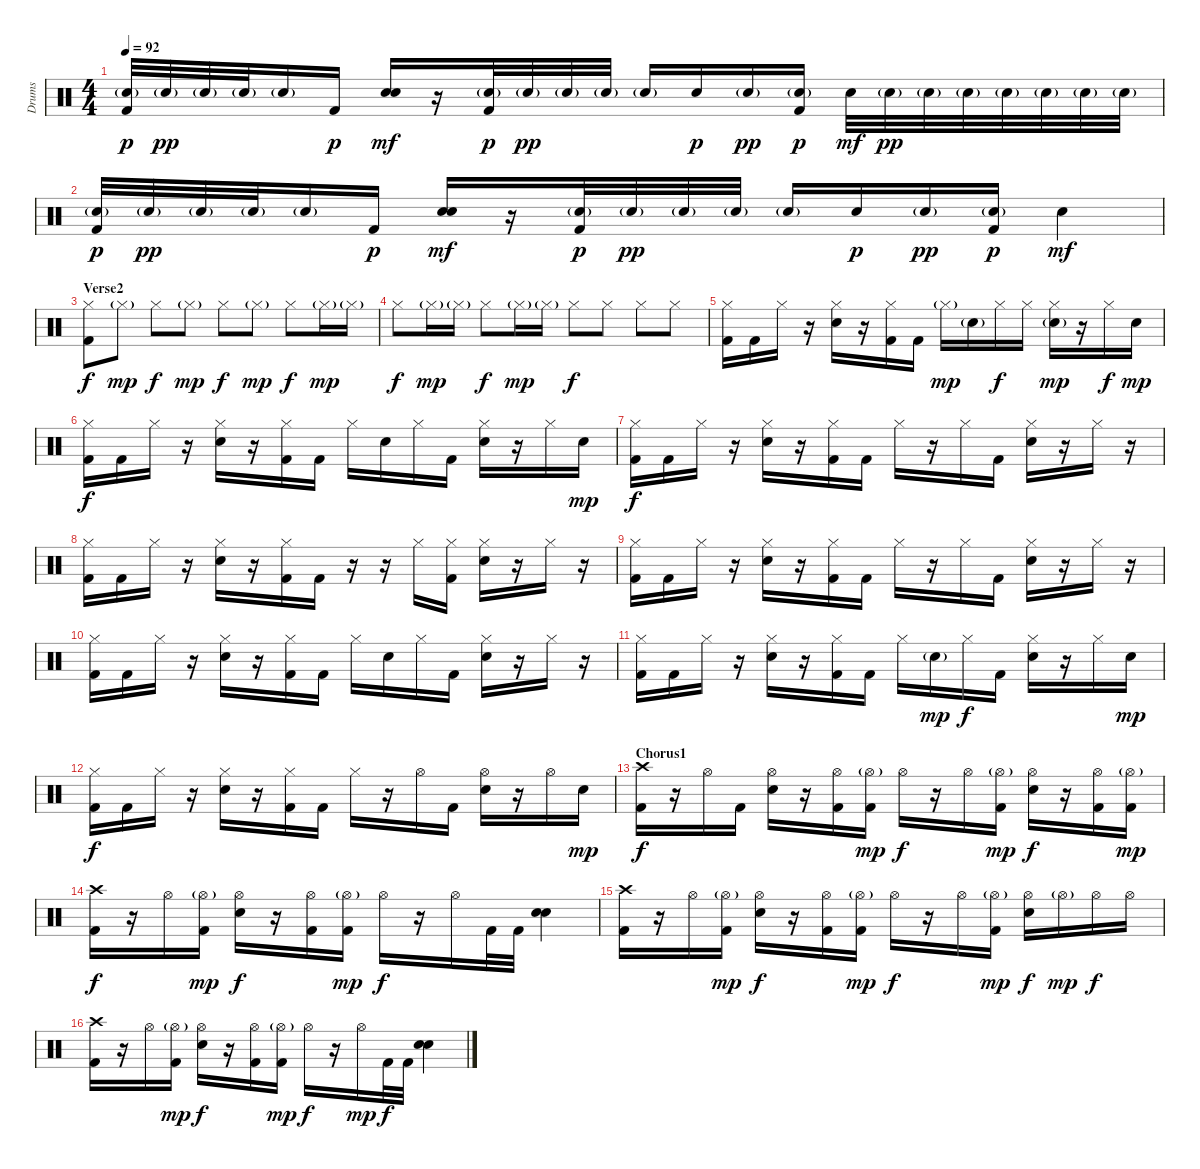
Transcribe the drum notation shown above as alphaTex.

\track ("Drums" "Drums") {instrument percussion}
\staff {score}
\articulation defaults
\ts (4 4)
\tempo 92
\clef neutral
\ks c
("Electric Snare (hit)"{g} "Kick (hit) 2").32{dy p} "Electric Snare (hit)"{g}.32{dy pp} "Electric Snare (hit)"{g}.32 "Electric Snare (hit)"{g}.32 "Electric Snare (hit)"{g}.16 "Kick (hit) 2".16{dy p} ("Electric Snare (hit)" "Electric Snare (hit)").16{dy mf} r.16 ("Electric Snare (hit)"{g} "Kick (hit) 2").32{dy p} "Electric Snare (hit)"{g}.32{dy pp} "Electric Snare (hit)"{g}.32 "Electric Snare (hit)"{g}.32 "Electric Snare (hit)"{g}.16 "Electric Snare (hit)".16{dy p} "Electric Snare (hit)"{g}.16{dy pp} ("Electric Snare (hit)"{g} "Kick (hit) 2").16{dy p} "Electric Snare (hit)".32{dy mf} "Electric Snare (hit)"{g}.32{dy pp} "Electric Snare (hit)"{g}.32 "Electric Snare (hit)"{g}.32 "Electric Snare (hit)"{g}.32 "Electric Snare (hit)"{g}.32 "Electric Snare (hit)"{g}.32 "Electric Snare (hit)"{g}.32 |
("Electric Snare (hit)"{g} "Kick (hit) 2").32{dy p} "Electric Snare (hit)"{g}.32{dy pp} "Electric Snare (hit)"{g}.32 "Electric Snare (hit)"{g}.32 "Electric Snare (hit)"{g}.16 "Kick (hit) 2".16{dy p} ("Electric Snare (hit)" "Electric Snare (hit)").16{dy mf} r.16 ("Electric Snare (hit)"{g} "Kick (hit) 2").32{dy p} "Electric Snare (hit)"{g}.32{dy pp} "Electric Snare (hit)"{g}.32 "Electric Snare (hit)"{g}.32 "Electric Snare (hit)"{g}.16 "Electric Snare (hit)".16{dy p} "Electric Snare (hit)"{g}.16{dy pp} ("Electric Snare (hit)"{g} "Kick (hit) 2").16{dy p} "Electric Snare (hit)".4{dy mf} |
\section ("" "Verse2")
("Hi-Hat (closed)" "Kick (hit) 2").8{dy f} "Hi-Hat (closed)"{g}.8{dy mp} "Hi-Hat (closed)".8{dy f} "Hi-Hat (closed)"{g}.8{dy mp} "Hi-Hat (closed)".8{dy f} "Hi-Hat (closed)"{g}.8{dy mp} "Hi-Hat (closed)".8{dy f} "Hi-Hat (closed)"{g}.16{dy mp} "Hi-Hat (closed)"{g}.16 |
"Hi-Hat (closed)".8{dy f} "Hi-Hat (closed)"{g}.16{dy mp} "Hi-Hat (closed)"{g}.16 "Hi-Hat (closed)".8{dy f} "Hi-Hat (closed)"{g}.16{dy mp} "Hi-Hat (closed)"{g}.16 "Hi-Hat (closed)".8{dy f} "Hi-Hat (closed)".8 "Hi-Hat (closed)".8 "Hi-Hat (closed)".8 |
("Hi-Hat (closed)" "Kick (hit) 2").16 "Kick (hit) 2".16 "Hi-Hat (closed)".16 r.16 ("Hi-Hat (closed)" "Snare (hit) 2").16 r.16 ("Hi-Hat (closed)" "Kick (hit) 2").16 "Kick (hit) 2".16 "Hi-Hat (closed)"{g}.16{dy mp} "Snare (hit) 2"{g}.16 "Hi-Hat (closed)".16{dy f} "Hi-Hat (closed)".16 ("Hi-Hat (closed)" "Snare (hit) 2"{g}).16{dy mp} r.16 "Hi-Hat (closed)".16{dy f} "Snare (hit) 2".16{dy mp} |
("Hi-Hat (closed)" "Kick (hit) 2").16{dy f} "Kick (hit) 2".16 "Hi-Hat (closed)".16 r.16 ("Hi-Hat (closed)" "Snare (hit) 2").16 r.16 ("Hi-Hat (closed)" "Kick (hit) 2").16 "Kick (hit) 2".16 "Hi-Hat (closed)".16 "Snare (hit) 2".16 "Hi-Hat (closed)".16 "Kick (hit) 2".16 ("Hi-Hat (closed)" "Snare (hit) 2").16 r.16 "Hi-Hat (closed)".16 "Snare (hit) 2".16{dy mp} |
("Hi-Hat (closed)" "Kick (hit) 2").16{dy f} "Kick (hit) 2".16 "Hi-Hat (closed)".16 r.16 ("Hi-Hat (closed)" "Snare (hit) 2").16 r.16 ("Hi-Hat (closed)" "Kick (hit) 2").16 "Kick (hit) 2".16 "Hi-Hat (closed)".16 r.16 "Hi-Hat (closed)".16 "Kick (hit) 2".16 ("Hi-Hat (closed)" "Snare (hit) 2").16 r.16 "Hi-Hat (closed)".16 r.16 |
("Hi-Hat (closed)" "Kick (hit) 2").16 "Kick (hit) 2".16 "Hi-Hat (closed)".16 r.16 ("Hi-Hat (closed)" "Snare (hit) 2").16 r.16 ("Hi-Hat (closed)" "Kick (hit) 2").16 "Kick (hit) 2".16 r.16 r.16 "Hi-Hat (closed)".16 ("Hi-Hat (closed)" "Kick (hit) 2").16 ("Hi-Hat (closed)" "Snare (hit) 2").16 r.16 "Hi-Hat (closed)".16 r.16 |
("Hi-Hat (closed)" "Kick (hit) 2").16 "Kick (hit) 2".16 "Hi-Hat (closed)".16 r.16 ("Hi-Hat (closed)" "Snare (hit) 2").16 r.16 ("Hi-Hat (closed)" "Kick (hit) 2").16 "Kick (hit) 2".16 "Hi-Hat (closed)".16 r.16 "Hi-Hat (closed)".16 "Kick (hit) 2".16 ("Hi-Hat (closed)" "Snare (hit) 2").16 r.16 "Hi-Hat (closed)".16 r.16 |
("Hi-Hat (closed)" "Kick (hit) 2").16 "Kick (hit) 2".16 "Hi-Hat (closed)".16 r.16 ("Hi-Hat (closed)" "Snare (hit) 2").16 r.16 ("Hi-Hat (closed)" "Kick (hit) 2").16 "Kick (hit) 2".16 "Hi-Hat (closed)".16 "Snare (hit) 2".16 "Hi-Hat (closed)".16 "Kick (hit) 2".16 ("Hi-Hat (closed)" "Snare (hit) 2").16 r.16 "Hi-Hat (closed)".16 r.16 |
("Hi-Hat (closed)" "Kick (hit) 2").16 "Kick (hit) 2".16 "Hi-Hat (closed)".16 r.16 ("Hi-Hat (closed)" "Snare (hit) 2").16 r.16 ("Hi-Hat (closed)" "Kick (hit) 2").16 "Kick (hit) 2".16 "Hi-Hat (closed)".16 "Snare (hit) 2"{g}.16{dy mp} "Hi-Hat (closed)".16{dy f} "Kick (hit) 2".16 ("Hi-Hat (closed)" "Snare (hit) 2").16 r.16 "Hi-Hat (closed)".16 "Snare (hit) 2".16{dy mp} |
("Hi-Hat (closed)" "Kick (hit) 2").16{dy f} "Kick (hit) 2".16 "Hi-Hat (closed)".16 r.16 ("Hi-Hat (closed)" "Snare (hit) 2").16 r.16 ("Hi-Hat (closed)" "Kick (hit) 2").16 "Kick (hit) 2".16 "Hi-Hat (closed)".16 r.16 "Hi-Hat (open)".16 "Kick (hit) 2".16 ("Hi-Hat (open)" "Snare (hit) 2").16 r.16 "Hi-Hat (open)".16 "Snare (hit) 2".16{dy mp} |
\section ("" "Chorus1")
("Crash high (hit)" "Kick (hit) 2").16{dy f} r.16 "Hi-Hat (open)".16 "Kick (hit) 2".16 ("Hi-Hat (open)" "Snare (hit) 2").16 r.16 ("Hi-Hat (open)" "Kick (hit) 2").16 ("Hi-Hat (open)"{g} "Kick (hit) 2").16{dy mp} "Hi-Hat (open)".16{dy f} r.16 "Hi-Hat (open)".16 ("Hi-Hat (open)"{g} "Kick (hit) 2").16{dy mp} ("Hi-Hat (open)" "Snare (hit) 2").16{dy f} r.16 ("Hi-Hat (open)" "Kick (hit) 2").16 ("Hi-Hat (open)"{g} "Kick (hit) 2").16{dy mp} |
("Crash high (hit)" "Kick (hit) 2").16{dy f} r.16 "Hi-Hat (open)".16 ("Hi-Hat (open)"{g} "Kick (hit) 2").16{dy mp} ("Hi-Hat (open)" "Snare (hit) 2").16{dy f} r.16 ("Hi-Hat (open)" "Kick (hit) 2").16 ("Hi-Hat (open)"{g} "Kick (hit) 2").16{dy mp} "Hi-Hat (open)".16{dy f} r.16 "Hi-Hat (open)".16 "Kick (hit) 2".32 "Kick (hit) 2".32 ("Snare (hit) 2" "Snare (hit) 2").4 |
("Crash high (hit)" "Kick (hit) 2").16 r.16 "Hi-Hat (open)".16 ("Hi-Hat (open)"{g} "Kick (hit) 2").16{dy mp} ("Hi-Hat (open)" "Snare (hit) 2").16{dy f} r.16 ("Hi-Hat (open)" "Kick (hit) 2").16 ("Hi-Hat (open)"{g} "Kick (hit) 2").16{dy mp} "Hi-Hat (open)".16{dy f} r.16 "Hi-Hat (open)".16 ("Hi-Hat (open)"{g} "Kick (hit) 2").16{dy mp} ("Hi-Hat (open)" "Snare (hit) 2").16{dy f} "Hi-Hat (open)"{g}.16{dy mp} "Hi-Hat (open)".16{dy f} "Hi-Hat (open)".16 |
("Crash high (hit)" "Kick (hit) 2").16 r.16 "Hi-Hat (open)".16 ("Hi-Hat (open)"{g} "Kick (hit) 2").16{dy mp} ("Hi-Hat (open)" "Snare (hit) 2").16{dy f} r.16 ("Hi-Hat (open)" "Kick (hit) 2").16 ("Hi-Hat (open)"{g} "Kick (hit) 2").16{dy mp} "Hi-Hat (open)".16{dy f} r.16 "Hi-Hat (open)".16{dy mp} "Kick (hit) 2".32{dy f} "Kick (hit) 2".32 ("Snare (hit) 2" "Snare (hit) 2").4
